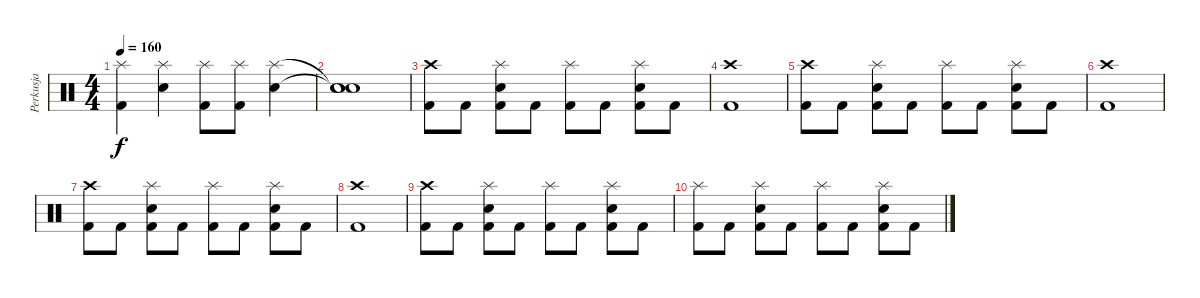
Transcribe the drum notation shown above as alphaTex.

\track ("Perkusja" "Perkusja") {instrument percussion}
\staff {score}
\articulation defaults
\ts (4 4)
\tempo 160
\clef neutral
\ks c
("Splash (hit)" "Kick (hit) 2").4{dy f} ("Splash (hit)" "Snare (hit) 2").4 ("Splash (hit)" "Kick (hit) 2").8 ("Splash (hit)" "Kick (hit) 2").8 ("Splash (hit)" "Snare (hit) 2").4 |
("Snare (hit)"{t} "Snare (hit)"{t} "Snare (hit)").1 |
("Crash high (hit)" "Kick (hit) 2").8 "Kick (hit) 2".8 ("Splash (hit)" "Snare (hit) 2" "Kick (hit) 2").8 "Kick (hit) 2".8 ("Splash (hit)" "Kick (hit) 2").8 "Kick (hit) 2".8 ("Splash (hit)" "Snare (hit) 2" "Kick (hit) 2").8 "Kick (hit) 2".8 |
("Crash high (hit)" "Kick (hit) 2").1 |
("Crash high (hit)" "Kick (hit) 2").8 "Kick (hit) 2".8 ("Splash (hit)" "Snare (hit) 2" "Kick (hit) 2").8 "Kick (hit) 2".8 ("Splash (hit)" "Kick (hit) 2").8 "Kick (hit) 2".8 ("Splash (hit)" "Snare (hit) 2" "Kick (hit) 2").8 "Kick (hit) 2".8 |
("Crash high (hit)" "Kick (hit) 2").1 |
("Crash high (hit)" "Kick (hit) 2").8 "Kick (hit) 2".8 ("Splash (hit)" "Snare (hit) 2" "Kick (hit) 2").8 "Kick (hit) 2".8 ("Splash (hit)" "Kick (hit) 2").8 "Kick (hit) 2".8 ("Splash (hit)" "Snare (hit) 2" "Kick (hit) 2").8 "Kick (hit) 2".8 |
("Crash high (hit)" "Kick (hit) 2").1 |
("Crash high (hit)" "Kick (hit) 2").8 "Kick (hit) 2".8 ("Splash (hit)" "Snare (hit) 2" "Kick (hit) 2").8 "Kick (hit) 2".8 ("Splash (hit)" "Kick (hit) 2").8 "Kick (hit) 2".8 ("Splash (hit)" "Snare (hit) 2" "Kick (hit) 2").8 "Kick (hit) 2".8 |
("Splash (hit)" "Kick (hit) 2").8 "Kick (hit) 2".8 ("Splash (hit)" "Snare (hit) 2" "Kick (hit) 2").8 "Kick (hit) 2".8 ("Splash (hit)" "Kick (hit) 2").8 "Kick (hit) 2".8 ("Splash (hit)" "Snare (hit) 2" "Kick (hit) 2").8 "Kick (hit) 2".8
